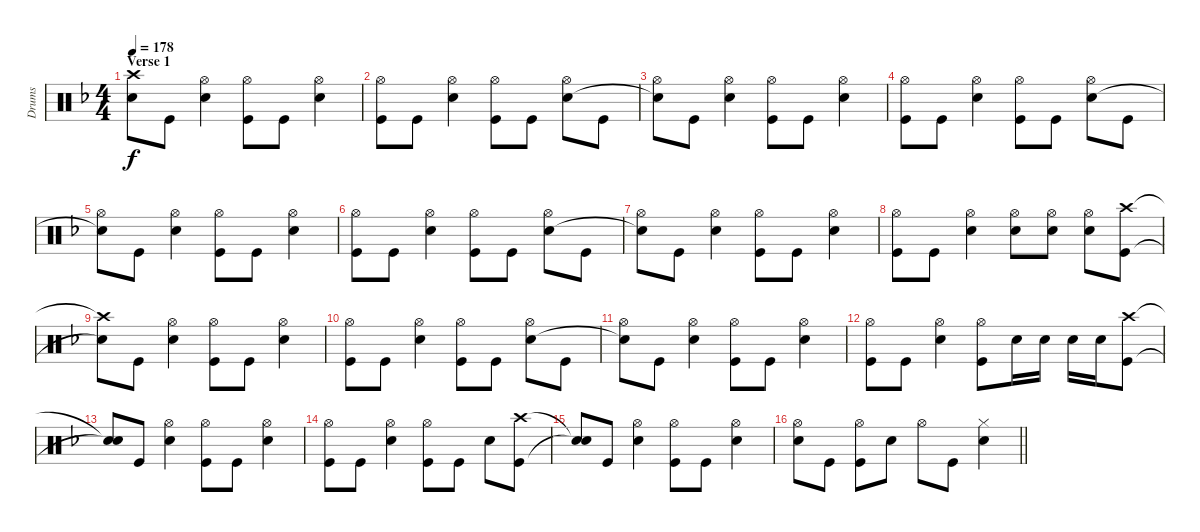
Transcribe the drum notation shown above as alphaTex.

\track ("Drums" "Drums") {instrument percussion}
\staff {score}
\articulation defaults
\ts (4 4)
\section ("" "Verse 1")
\tempo 178
\clef neutral
\ks f
("Crash high (hit)"{t} "Snare (hit)"{t}).8{dy f} "Kick (hit)".8 ("Hi-Hat (open)" "Electric Snare (hit)").4 ("Hi-Hat (open)" "Kick (hit)").8 "Kick (hit)".8 ("Hi-Hat (open)" "Electric Snare (hit)").4 |
("Hi-Hat (open)" "Kick (hit)").8 "Kick (hit)".8 ("Hi-Hat (open)" "Electric Snare (hit)").4 ("Hi-Hat (open)" "Kick (hit)").8 "Kick (hit)".8 ("Hi-Hat (open)" "Electric Snare (hit)").8 "Kick (hit)".8 |
("Hi-Hat (open)" "Snare (hit)"{t}).8 "Kick (hit)".8 ("Hi-Hat (open)" "Electric Snare (hit)").4 ("Hi-Hat (open)" "Kick (hit)").8 "Kick (hit)".8 ("Hi-Hat (open)" "Electric Snare (hit)").4 |
("Hi-Hat (open)" "Kick (hit)").8 "Kick (hit)".8 ("Hi-Hat (open)" "Electric Snare (hit)").4 ("Hi-Hat (open)" "Kick (hit)").8 "Kick (hit)".8 ("Hi-Hat (open)" "Electric Snare (hit)").8 "Kick (hit)".8 |
("Hi-Hat (open)" "Snare (hit)"{t}).8 "Kick (hit)".8 ("Hi-Hat (open)" "Electric Snare (hit)").4 ("Hi-Hat (open)" "Kick (hit)").8 "Kick (hit)".8 ("Hi-Hat (open)" "Electric Snare (hit)").4 |
("Hi-Hat (open)" "Kick (hit)").8 "Kick (hit)".8 ("Hi-Hat (open)" "Electric Snare (hit)").4 ("Hi-Hat (open)" "Kick (hit)").8 "Kick (hit)".8 ("Hi-Hat (open)" "Electric Snare (hit)").8 "Kick (hit)".8 |
("Hi-Hat (open)" "Snare (hit)"{t}).8 "Kick (hit)".8 ("Hi-Hat (open)" "Electric Snare (hit)").4 ("Hi-Hat (open)" "Kick (hit)").8 "Kick (hit)".8 ("Hi-Hat (open)" "Electric Snare (hit)").4 |
("Hi-Hat (open)" "Kick (hit)").8 "Kick (hit)".8 ("Hi-Hat (open)" "Electric Snare (hit)").4 ("Hi-Hat (open)" "Electric Snare (hit)").8 ("Hi-Hat (open)" "Electric Snare (hit)").8 ("Hi-Hat (open)" "Electric Snare (hit)").8 ("Crash high (hit)" "Kick (hit)").8 |
("Crash high (hit)"{t} "Snare (hit)"{t}).8 "Kick (hit)".8 ("Hi-Hat (open)" "Electric Snare (hit)").4 ("Hi-Hat (open)" "Kick (hit)").8 "Kick (hit)".8 ("Hi-Hat (open)" "Electric Snare (hit)").4 |
("Hi-Hat (open)" "Kick (hit)").8 "Kick (hit)".8 ("Hi-Hat (open)" "Electric Snare (hit)").4 ("Hi-Hat (open)" "Kick (hit)").8 "Kick (hit)".8 ("Hi-Hat (open)" "Electric Snare (hit)").8 "Kick (hit)".8 |
("Hi-Hat (open)" "Snare (hit)"{t}).8 "Kick (hit)".8 ("Hi-Hat (open)" "Electric Snare (hit)").4 ("Hi-Hat (open)" "Kick (hit)").8 "Kick (hit)".8 ("Hi-Hat (open)" "Electric Snare (hit)").4 |
("Hi-Hat (open)" "Kick (hit)").8 "Kick (hit)".8 ("Hi-Hat (open)" "Electric Snare (hit)").4 ("Hi-Hat (open)" "Kick (hit)").8 "Electric Snare (hit)".16 "Electric Snare (hit)".16 "Electric Snare (hit)".16 "Electric Snare (hit)".16 ("Crash high (hit)" "Kick (hit)").8 |
("Snare (hit)"{t} "Snare (hit)"{t}).8 "Kick (hit)".8 ("Hi-Hat (open)" "Electric Snare (hit)").4 ("Hi-Hat (open)" "Kick (hit)").8 "Kick (hit)".8 ("Hi-Hat (open)" "Electric Snare (hit)").4 |
("Hi-Hat (open)" "Kick (hit)").8 "Kick (hit)".8 ("Hi-Hat (open)" "Electric Snare (hit)").4 ("Hi-Hat (open)" "Kick (hit)").8 "Kick (hit)".8 "Electric Snare (hit)".8 ("Crash high (hit)" "Kick (hit)").8 |
("Snare (hit)"{t} "Snare (hit)"{t}).8 "Kick (hit)".8 ("Hi-Hat (open)" "Electric Snare (hit)").4 ("Hi-Hat (open)" "Kick (hit)").8 "Kick (hit)".8 ("Hi-Hat (open)" "Electric Snare (hit)").4 |
\barLineRight lightlight
("Hi-Hat (open)" "Electric Snare (hit)").8 "Kick (hit)".8 ("Hi-Hat (open)" "Kick (hit)").8 "Electric Snare (hit)".8 "Hi-Hat (open)".8 "Kick (hit)".8 ("Hi-Hat (closed)" "Electric Snare (hit)").4
